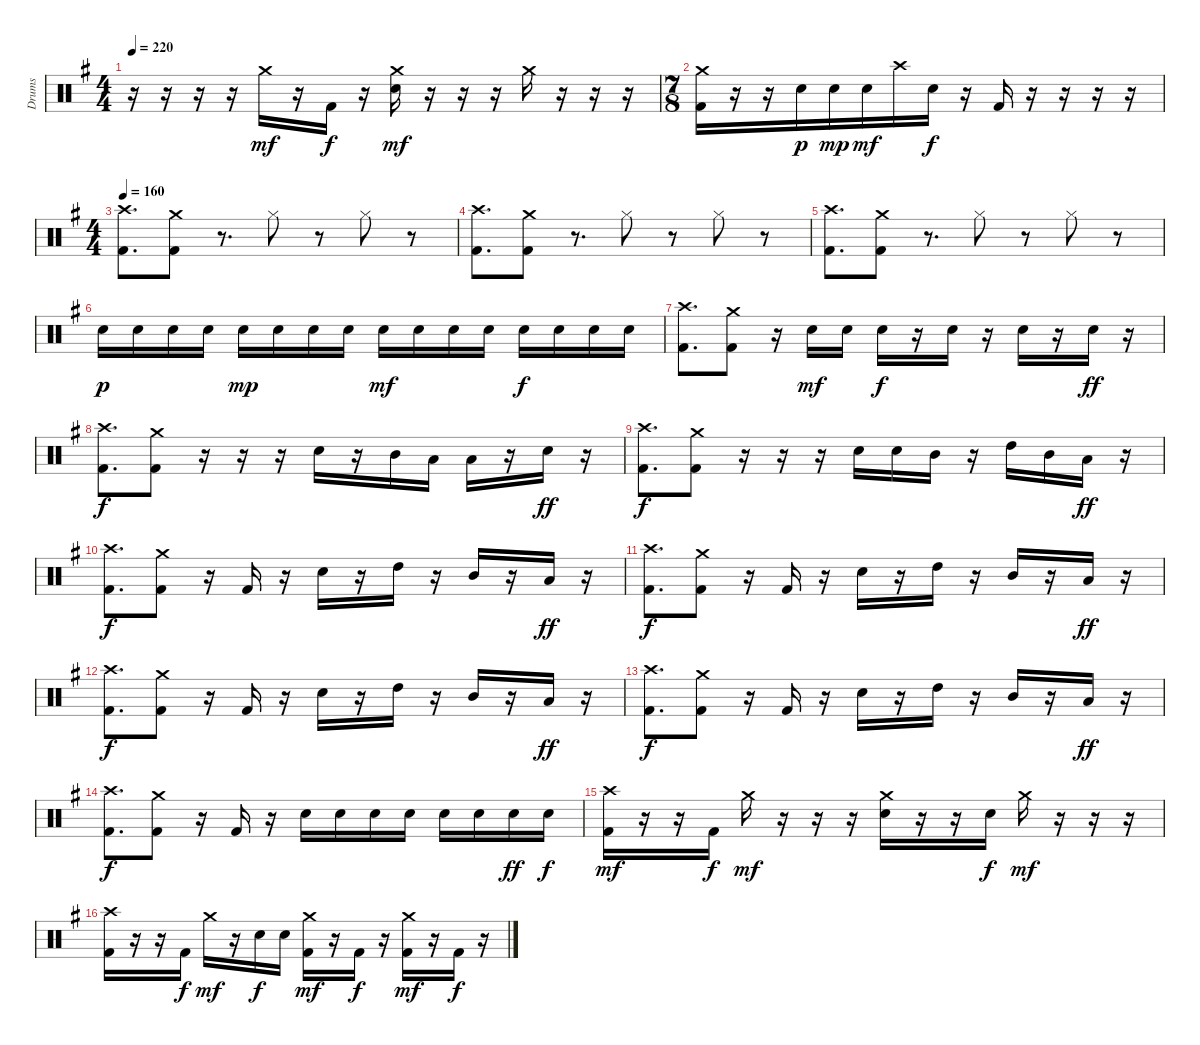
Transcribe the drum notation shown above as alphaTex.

\track ("Drums" "Drums") {instrument percussion}
\staff {score}
\articulation defaults
\ts (4 4)
\tempo 220
\clef neutral
\ks g
r.16{dy mf} r.16 r.16 r.16 "Crash medium (hit)".16 r.16 "Kick (hit) 2".16{dy f} r.16 ("Crash medium (hit)" "Snare (hit) 2").16{dy mf} r.16 r.16 r.16 "Crash medium (hit)".16 r.16 r.16 r.16 |
\ts (7 8)
("Crash medium (hit)" "Kick (hit) 2").16 r.16 r.16 "Snare (hit) 2".16{dy p} "Snare (hit) 2".16{dy mp} "Snare (hit) 2".16{dy mf} "Crash high (hit)".16 "Snare (hit) 2".16{dy f} r.16 "Kick (hit) 2".16 r.16 r.16 r.16 r.16 |
\ts (4 4)
\tempo 160
("Crash high (hit)" "Kick (hit) 2").8{d} ("Crash medium (hit)" "Kick (hit) 2").8 r.8{d} "Hi-Hat (closed)".8 r.8 "Hi-Hat (closed)".8 r.8 |
("Crash high (hit)" "Kick (hit) 2").8{d} ("Crash medium (hit)" "Kick (hit) 2").8 r.8{d} "Hi-Hat (closed)".8 r.8 "Hi-Hat (closed)".8 r.8 |
("Crash high (hit)" "Kick (hit) 2").8{d} ("Crash medium (hit)" "Kick (hit) 2").8 r.8{d} "Hi-Hat (closed)".8 r.8 "Hi-Hat (closed)".8 r.8 |
"Snare (hit) 2".16{dy p} "Snare (hit) 2".16 "Snare (hit) 2".16 "Snare (hit) 2".16 "Snare (hit) 2".16{dy mp} "Snare (hit) 2".16 "Snare (hit) 2".16 "Snare (hit) 2".16 "Snare (hit) 2".16{dy mf} "Snare (hit) 2".16 "Snare (hit) 2".16 "Snare (hit) 2".16 "Snare (hit) 2".16{dy f} "Snare (hit) 2".16 "Snare (hit) 2".16 "Snare (hit) 2".16 |
("Crash high (hit)" "Kick (hit) 2").8{d} ("Crash medium (hit)" "Kick (hit) 2").8 r.16 "Snare (hit) 2".16{dy mf} "Snare (hit) 2".16 "Snare (hit) 2".16{dy f} r.16 "Snare (hit) 2".16 r.16 "Snare (hit) 2".16 r.16 "Snare (hit) 2".16{dy ff} r.16 |
("Crash high (hit)" "Kick (hit) 2").8{d dy f} ("Crash medium (hit)" "Kick (hit) 2").8 r.16 r.16 r.16 "Snare (hit) 2".16 r.16 "Mid Tom (hit)".16 "Low Tom (hit)".16 "Low Tom (hit)".16 r.16 "Snare (hit) 2".16{dy ff} r.16 |
("Crash high (hit)" "Kick (hit) 2").8{d dy f} ("Crash medium (hit)" "Kick (hit) 2").8 r.16 r.16 r.16 "Snare (hit) 2".16 "Snare (hit) 2".16 "Mid Tom (hit)".16 r.16 "High Tom (hit)".16 "Mid Tom (hit)".16 "Low Tom (hit)".16{dy ff} r.16 |
("Crash high (hit)" "Kick (hit) 2").8{d dy f} ("Crash medium (hit)" "Kick (hit) 2").8 r.16 "Kick (hit) 2".16 r.16 "Snare (hit) 2".16 r.16 "High Tom (hit)".16 r.16 "Mid Tom (hit)".16 r.16 "Low Tom (hit)".16{dy ff} r.16 |
("Crash high (hit)" "Kick (hit) 2").8{d dy f} ("Crash medium (hit)" "Kick (hit) 2").8 r.16 "Kick (hit) 2".16 r.16 "Snare (hit) 2".16 r.16 "High Tom (hit)".16 r.16 "Mid Tom (hit)".16 r.16 "Low Tom (hit)".16{dy ff} r.16 |
("Crash high (hit)" "Kick (hit) 2").8{d dy f} ("Crash medium (hit)" "Kick (hit) 2").8 r.16 "Kick (hit) 2".16 r.16 "Snare (hit) 2".16 r.16 "High Tom (hit)".16 r.16 "Mid Tom (hit)".16 r.16 "Low Tom (hit)".16{dy ff} r.16 |
("Crash high (hit)" "Kick (hit) 2").8{d dy f} ("Crash medium (hit)" "Kick (hit) 2").8 r.16 "Kick (hit) 2".16 r.16 "Snare (hit) 2".16 r.16 "High Tom (hit)".16 r.16 "Mid Tom (hit)".16 r.16 "Low Tom (hit)".16{dy ff} r.16 |
("Crash high (hit)" "Kick (hit) 2").8{d dy f} ("Crash medium (hit)" "Kick (hit) 2").8 r.16 "Kick (hit) 2".16 r.16 "Snare (hit) 2".16 "Snare (hit) 2".16 "Snare (hit) 2".16 "Snare (hit) 2".16 "Snare (hit) 2".16 "Snare (hit) 2".16 "Snare (hit) 2".16{dy ff} "Snare (hit) 2".16{dy f} |
("Crash high (hit)" "Kick (hit) 2").16{dy mf} r.16 r.16 "Kick (hit) 2".16{dy f} "Crash medium (hit)".16{dy mf} r.16 r.16 r.16 ("Crash medium (hit)" "Snare (hit) 2").16 r.16 r.16 "Snare (hit) 2".16{dy f} "Crash medium (hit)".16{dy mf} r.16 r.16 r.16 |
("Crash high (hit)" "Kick (hit) 2").16 r.16 r.16 "Kick (hit) 2".16{dy f} "Crash medium (hit)".16{dy mf} r.16 "Snare (hit) 2".16{dy f} "Snare (hit) 2".16 ("Crash medium (hit)" "Kick (hit) 2").16{dy mf} r.16 "Kick (hit) 2".16{dy f} r.16 ("Crash medium (hit)" "Kick (hit) 2").16{dy mf} r.16 "Kick (hit) 2".16{dy f} r.16
